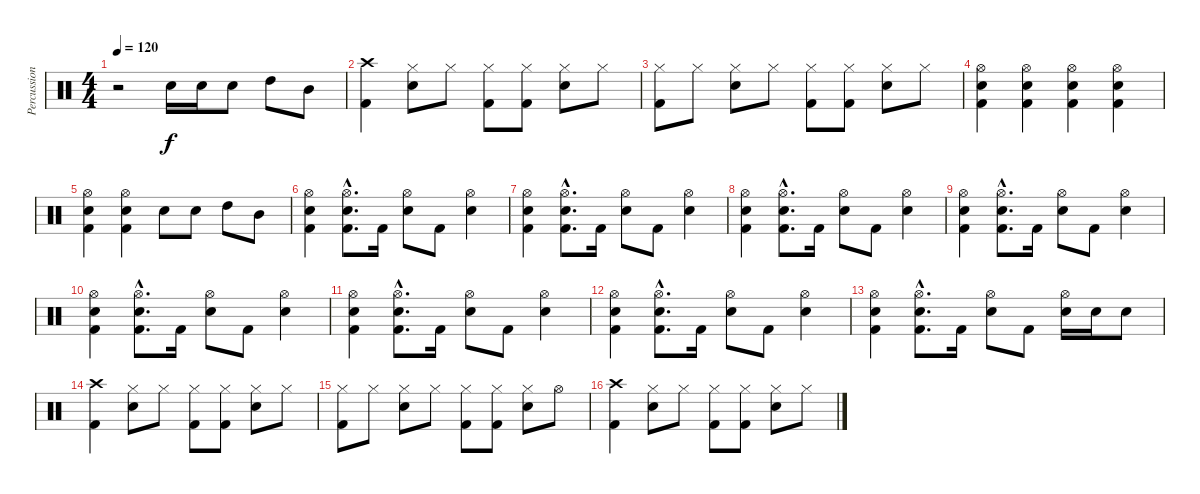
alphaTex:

\track ("Percussions" "Percussion") {instrument percussion}
\staff {score}
\articulation defaults
\ts (4 4)
\tempo 120
\clef neutral
\ks c
r.2{dy f} "Snare (hit) 2".16 "Snare (hit) 2".16 "Snare (hit) 2".8 "High Tom (hit)".8 "Mid Tom (hit)".8 |
("Crash high (hit)" "Kick (hit) 2").4 ("Hi-Hat (closed)" "Snare (hit) 2").8 "Hi-Hat (closed)".8 ("Hi-Hat (closed)" "Kick (hit) 2").8 ("Hi-Hat (closed)" "Kick (hit) 2").8 ("Hi-Hat (closed)" "Snare (hit) 2").8 "Hi-Hat (closed)".8 |
("Hi-Hat (closed)" "Kick (hit) 2").8 "Hi-Hat (closed)".8 ("Hi-Hat (closed)" "Snare (hit) 2").8 "Hi-Hat (closed)".8 ("Hi-Hat (closed)" "Kick (hit) 2").8 ("Hi-Hat (closed)" "Kick (hit) 2").8 ("Hi-Hat (closed)" "Snare (hit) 2").8 "Hi-Hat (closed)".8 |
("Hi-Hat (open)" "Snare (hit) 2" "Kick (hit) 2").4 ("Hi-Hat (open)" "Snare (hit) 2" "Kick (hit) 2").4 ("Hi-Hat (open)" "Snare (hit) 2" "Kick (hit) 2").4 ("Hi-Hat (open)" "Snare (hit) 2" "Kick (hit) 2").4 |
("Hi-Hat (open)" "Snare (hit) 2" "Kick (hit) 2").4 ("Hi-Hat (open)" "Snare (hit) 2" "Kick (hit) 2").4 "Snare (hit) 2".8 "Snare (hit) 2".8 "High Tom (hit)".8 "Mid Tom (hit)".8 |
("Hi-Hat (open)" "Snare (hit) 2" "Kick (hit) 2").4 ("Hi-Hat (open)"{hac} "Snare (hit) 2"{hac} "Kick (hit) 2"{hac}).8{d} "Kick (hit) 2".16 ("Hi-Hat (open)" "Snare (hit) 2").8 "Kick (hit) 2".8 ("Hi-Hat (open)" "Snare (hit) 2").4 |
("Hi-Hat (open)" "Snare (hit) 2" "Kick (hit) 2").4 ("Hi-Hat (open)"{hac} "Snare (hit) 2"{hac} "Kick (hit) 2"{hac}).8{d} "Kick (hit) 2".16 ("Hi-Hat (open)" "Snare (hit) 2").8 "Kick (hit) 2".8 ("Hi-Hat (open)" "Snare (hit) 2").4 |
("Hi-Hat (open)" "Snare (hit) 2" "Kick (hit) 2").4 ("Hi-Hat (open)"{hac} "Snare (hit) 2"{hac} "Kick (hit) 2"{hac}).8{d} "Kick (hit) 2".16 ("Hi-Hat (open)" "Snare (hit) 2").8 "Kick (hit) 2".8 ("Hi-Hat (open)" "Snare (hit) 2").4 |
("Hi-Hat (open)" "Snare (hit) 2" "Kick (hit) 2").4 ("Hi-Hat (open)"{hac} "Snare (hit) 2"{hac} "Kick (hit) 2"{hac}).8{d} "Kick (hit) 2".16 ("Hi-Hat (open)" "Snare (hit) 2").8 "Kick (hit) 2".8 ("Hi-Hat (open)" "Snare (hit) 2").4 |
("Hi-Hat (open)" "Snare (hit) 2" "Kick (hit) 2").4 ("Hi-Hat (open)"{hac} "Snare (hit) 2"{hac} "Kick (hit) 2"{hac}).8{d} "Kick (hit) 2".16 ("Hi-Hat (open)" "Snare (hit) 2").8 "Kick (hit) 2".8 ("Hi-Hat (open)" "Snare (hit) 2").4 |
("Hi-Hat (open)" "Snare (hit) 2" "Kick (hit) 2").4 ("Hi-Hat (open)"{hac} "Snare (hit) 2"{hac} "Kick (hit) 2"{hac}).8{d} "Kick (hit) 2".16 ("Hi-Hat (open)" "Snare (hit) 2").8 "Kick (hit) 2".8 ("Hi-Hat (open)" "Snare (hit) 2").4 |
("Hi-Hat (open)" "Snare (hit) 2" "Kick (hit) 2").4 ("Hi-Hat (open)"{hac} "Snare (hit) 2"{hac} "Kick (hit) 2"{hac}).8{d} "Kick (hit) 2".16 ("Hi-Hat (open)" "Snare (hit) 2").8 "Kick (hit) 2".8 ("Hi-Hat (open)" "Snare (hit) 2").4 |
("Hi-Hat (open)" "Snare (hit) 2" "Kick (hit) 2").4 ("Hi-Hat (open)"{hac} "Snare (hit) 2"{hac} "Kick (hit) 2"{hac}).8{d} "Kick (hit) 2".16 ("Hi-Hat (open)" "Snare (hit) 2").8 "Kick (hit) 2".8 ("Hi-Hat (open)" "Snare (hit) 2").16 "Snare (hit) 2".16 "Snare (hit) 2".8 |
("Crash high (hit)" "Kick (hit) 2").4 ("Hi-Hat (closed)" "Snare (hit) 2").8 "Hi-Hat (closed)".8 ("Hi-Hat (closed)" "Kick (hit) 2").8 ("Hi-Hat (closed)" "Kick (hit) 2").8 ("Hi-Hat (closed)" "Snare (hit) 2").8 "Hi-Hat (closed)".8 |
("Hi-Hat (closed)" "Kick (hit) 2").8 "Hi-Hat (closed)".8 ("Hi-Hat (closed)" "Snare (hit) 2").8 "Hi-Hat (closed)".8 ("Hi-Hat (closed)" "Kick (hit) 2").8 ("Hi-Hat (closed)" "Kick (hit) 2").8 ("Hi-Hat (closed)" "Snare (hit) 2").8 "Hi-Hat (open)".8 |
("Crash high (hit)" "Kick (hit) 2").4 ("Hi-Hat (closed)" "Snare (hit) 2").8 "Hi-Hat (closed)".8 ("Hi-Hat (closed)" "Kick (hit) 2").8 ("Hi-Hat (closed)" "Kick (hit) 2").8 ("Hi-Hat (closed)" "Snare (hit) 2").8 "Hi-Hat (closed)".8
